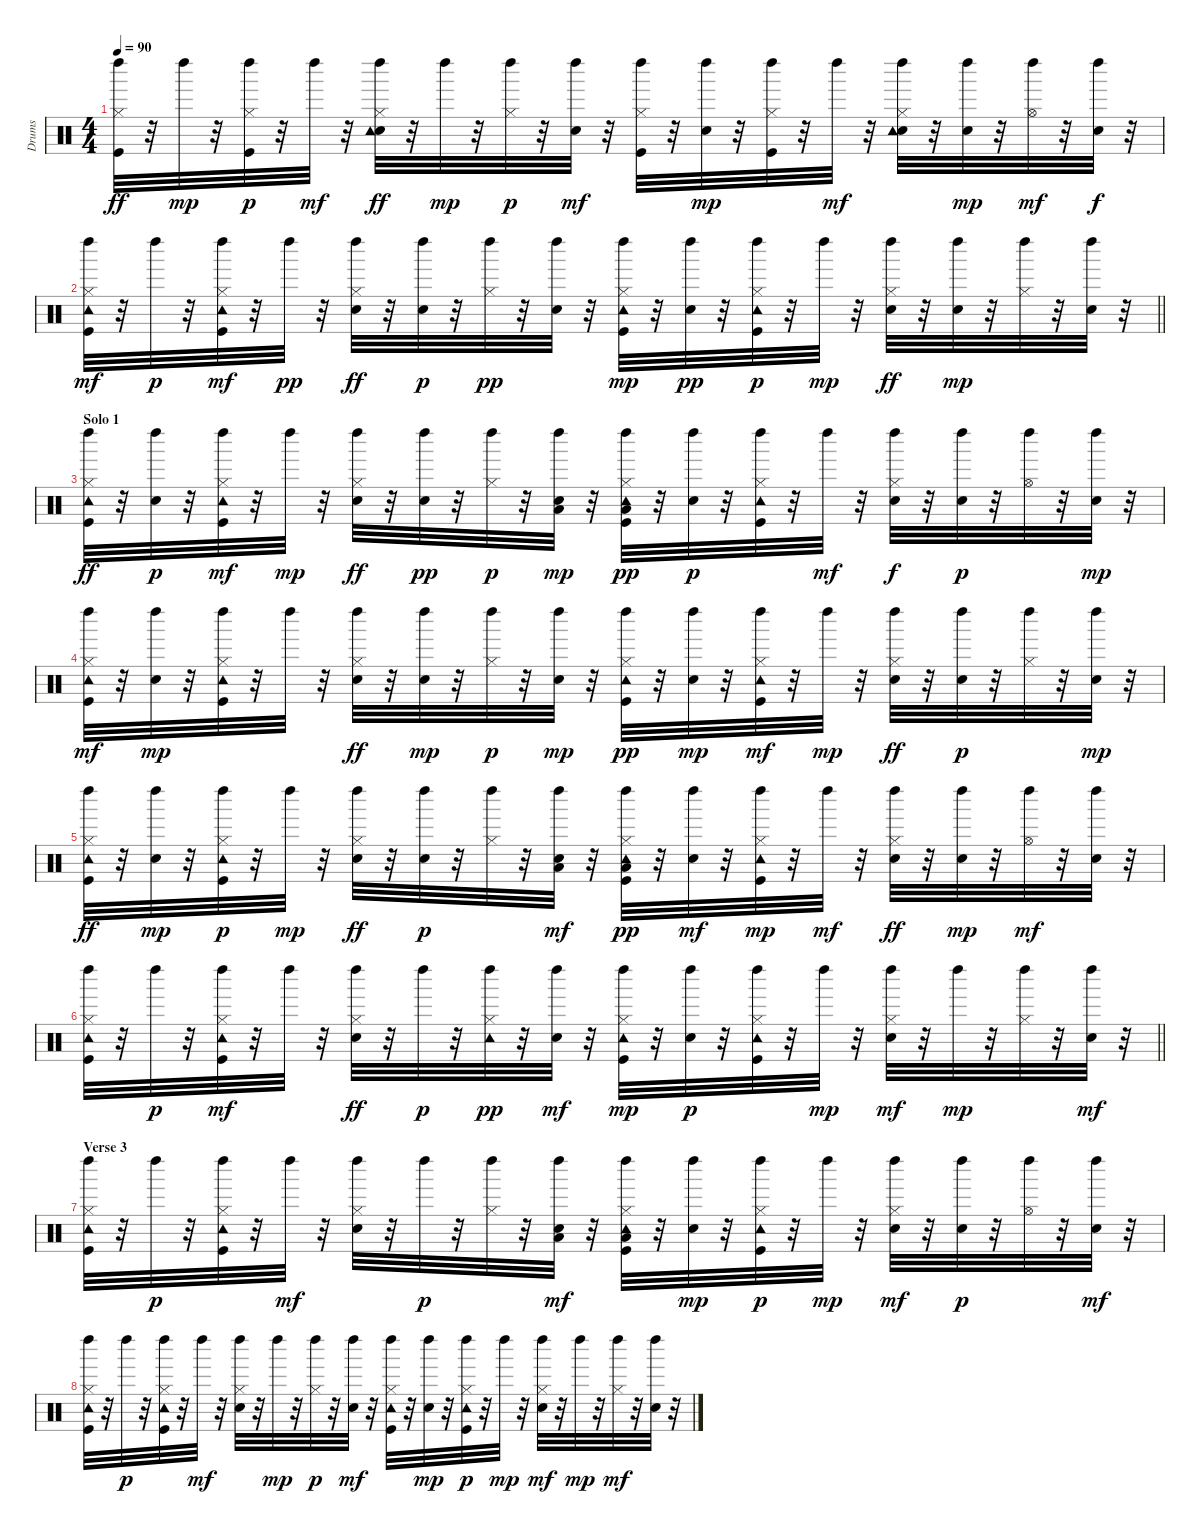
\track ("Drums" "Drums") {instrument percussion}
\staff {score}
\articulation defaults
\ts (4 4)
\tempo 90
\clef neutral
\ks c
("Kick (hit)" "Left Maraca (hit)" "Hi-Hat (closed)").32{dy ff} r.32 "Left Maraca (hit)".32{dy mp} r.32 ("Kick (hit)" "Hi-Hat (closed)" "Left Maraca (hit)").32{dy p} r.32 "Left Maraca (hit)".32{dy mf} r.32 ("Left Maraca (hit)" "Hi-Hat (closed)" "Electric Snare (hit)" "Tambourine (hit)").32{dy ff} r.32 "Left Maraca (hit)".32{dy mp} r.32 ("Hi-Hat (closed)" "Left Maraca (hit)").32{dy p} r.32 ("Electric Snare (hit)" "Left Maraca (hit)").32{dy mf} r.32 ("Kick (hit)" "Left Maraca (hit)" "Hi-Hat (closed)").32 r.32 ("Electric Snare (hit)" "Left Maraca (hit)").32{dy mp} r.32 ("Hi-Hat (closed)" "Kick (hit)" "Left Maraca (hit)").32 r.32 "Left Maraca (hit)".32{dy mf} r.32 ("Hi-Hat (closed)" "Electric Snare (hit)" "Tambourine (hit)" "Left Maraca (hit)").32 r.32 ("Electric Snare (hit)" "Left Maraca (hit)").32{dy mp} r.32 ("Hi-Hat (open)" "Left Maraca (hit)").32{dy mf} r.32 ("Electric Snare (hit)" "Left Maraca (hit)").32{dy f} r.32 |
\barLineRight lightlight
("Kick (hit)" "Tambourine (hit)" "Left Maraca (hit)" "Hi-Hat (closed)").32{dy mf} r.32 "Left Maraca (hit)".32{dy p} r.32 ("Tambourine (hit)" "Left Maraca (hit)" "Hi-Hat (closed)" "Kick (hit)").32{dy mf} r.32 "Left Maraca (hit)".32{dy pp} r.32 ("Electric Snare (hit)" "Left Maraca (hit)" "Hi-Hat (closed)").32{dy ff} r.32 ("Left Maraca (hit)" "Electric Snare (hit)").32{dy p} r.32 ("Hi-Hat (closed)" "Left Maraca (hit)").32{dy pp} r.32 ("Electric Snare (hit)" "Left Maraca (hit)").32 r.32 ("Tambourine (hit)" "Hi-Hat (closed)" "Kick (hit)" "Left Maraca (hit)").32{dy mp} r.32 ("Electric Snare (hit)" "Left Maraca (hit)").32{dy pp} r.32 ("Hi-Hat (closed)" "Kick (hit)" "Tambourine (hit)" "Left Maraca (hit)").32{dy p} r.32 "Left Maraca (hit)".32{dy mp} r.32 ("Left Maraca (hit)" "Hi-Hat (closed)" "Electric Snare (hit)").32{dy ff} r.32 ("Left Maraca (hit)" "Electric Snare (hit)").32{dy mp} r.32 ("Hi-Hat (closed)" "Left Maraca (hit)").32 r.32 ("Electric Snare (hit)" "Left Maraca (hit)").32 r.32 |
\section ("" "Solo 1")
("Tambourine (hit)" "Left Maraca (hit)" "Hi-Hat (closed)" "Kick (hit)").32{dy ff} r.32 ("Electric Snare (hit)" "Left Maraca (hit)").32{dy p} r.32 ("Tambourine (hit)" "Left Maraca (hit)" "Hi-Hat (closed)" "Kick (hit)").32{dy mf} r.32 "Left Maraca (hit)".32{dy mp} r.32 ("Electric Snare (hit)" "Hi-Hat (closed)" "Left Maraca (hit)").32{dy ff} r.32 ("Left Maraca (hit)" "Electric Snare (hit)").32{dy pp} r.32 ("Hi-Hat (closed)" "Left Maraca (hit)").32{dy p} r.32 ("Electric Snare (hit)" "Low Tom (hit)" "Left Maraca (hit)").32{dy mp} r.32 ("Tambourine (hit)" "Low Floor Tom (hit)" "Hi-Hat (closed)" "Kick (hit)" "Left Maraca (hit)").32{dy pp} r.32 ("Electric Snare (hit)" "Left Maraca (hit)").32{dy p} r.32 ("Kick (hit)" "Hi-Hat (closed)" "Tambourine (hit)" "Left Maraca (hit)").32 r.32 "Left Maraca (hit)".32{dy mf} r.32 ("Electric Snare (hit)" "Hi-Hat (closed)" "Left Maraca (hit)").32{dy f} r.32 ("Electric Snare (hit)" "Left Maraca (hit)").32{dy p} r.32 ("Hi-Hat (open)" "Left Maraca (hit)").32 r.32 ("Electric Snare (hit)" "Left Maraca (hit)").32{dy mp} r.32 |
("Tambourine (hit)" "Hi-Hat (closed)" "Kick (hit)" "Left Maraca (hit)").32{dy mf} r.32 ("Electric Snare (hit)" "Left Maraca (hit)").32{dy mp} r.32 ("Tambourine (hit)" "Hi-Hat (closed)" "Kick (hit)" "Left Maraca (hit)").32 r.32 "Left Maraca (hit)".32 r.32 ("Hi-Hat (closed)" "Electric Snare (hit)" "Left Maraca (hit)").32{dy ff} r.32 ("Left Maraca (hit)" "Electric Snare (hit)").32{dy mp} r.32 ("Hi-Hat (closed)" "Left Maraca (hit)").32{dy p} r.32 ("Electric Snare (hit)" "Left Maraca (hit)").32{dy mp} r.32 ("Tambourine (hit)" "Left Maraca (hit)" "Hi-Hat (closed)" "Kick (hit)").32{dy pp} r.32 ("Left Maraca (hit)" "Electric Snare (hit)").32{dy mp} r.32 ("Tambourine (hit)" "Left Maraca (hit)" "Hi-Hat (closed)" "Kick (hit)").32{dy mf} r.32 "Left Maraca (hit)".32{dy mp} r.32 ("Hi-Hat (closed)" "Electric Snare (hit)" "Left Maraca (hit)").32{dy ff} r.32 ("Electric Snare (hit)" "Left Maraca (hit)").32{dy p} r.32 ("Hi-Hat (closed)" "Left Maraca (hit)").32 r.32 ("Electric Snare (hit)" "Left Maraca (hit)").32{dy mp} r.32 |
("Tambourine (hit)" "Left Maraca (hit)" "Hi-Hat (closed)" "Kick (hit)").32{dy ff} r.32 ("Electric Snare (hit)" "Left Maraca (hit)").32{dy mp} r.32 ("Tambourine (hit)" "Hi-Hat (closed)" "Kick (hit)" "Left Maraca (hit)").32{dy p} r.32 "Left Maraca (hit)".32{dy mp} r.32 ("Hi-Hat (closed)" "Electric Snare (hit)" "Left Maraca (hit)").32{dy ff} r.32 ("Electric Snare (hit)" "Left Maraca (hit)").32{dy p} r.32 ("Hi-Hat (closed)" "Left Maraca (hit)").32 r.32 ("Electric Snare (hit)" "Low Tom (hit)" "Left Maraca (hit)").32{dy mf} r.32 ("Low Floor Tom (hit)" "Hi-Hat (closed)" "Kick (hit)" "Tambourine (hit)" "Left Maraca (hit)").32{dy pp} r.32 ("Left Maraca (hit)" "Electric Snare (hit)").32{dy mf} r.32 ("Tambourine (hit)" "Hi-Hat (closed)" "Kick (hit)" "Left Maraca (hit)").32{dy mp} r.32 "Left Maraca (hit)".32{dy mf} r.32 ("Electric Snare (hit)" "Hi-Hat (closed)" "Left Maraca (hit)").32{dy ff} r.32 ("Electric Snare (hit)" "Left Maraca (hit)").32{dy mp} r.32 ("Hi-Hat (open)" "Left Maraca (hit)").32{dy mf} r.32 ("Electric Snare (hit)" "Left Maraca (hit)").32 r.32 |
\barLineRight lightlight
("Kick (hit)" "Tambourine (hit)" "Left Maraca (hit)" "Hi-Hat (closed)").32 r.32 "Left Maraca (hit)".32{dy p} r.32 ("Kick (hit)" "Tambourine (hit)" "Left Maraca (hit)" "Hi-Hat (closed)").32{dy mf} r.32 "Left Maraca (hit)".32 r.32 ("Left Maraca (hit)" "Hi-Hat (closed)" "Electric Snare (hit)").32{dy ff} r.32 "Left Maraca (hit)".32{dy p} r.32 ("Tambourine (hit)" "Hi-Hat (closed)" "Left Maraca (hit)").32{dy pp} r.32 ("Left Maraca (hit)" "Electric Snare (hit)").32{dy mf} r.32 ("Hi-Hat (closed)" "Tambourine (hit)" "Kick (hit)" "Left Maraca (hit)").32{dy mp} r.32 ("Electric Snare (hit)" "Left Maraca (hit)").32{dy p} r.32 ("Hi-Hat (closed)" "Kick (hit)" "Tambourine (hit)" "Left Maraca (hit)").32 r.32 "Left Maraca (hit)".32{dy mp} r.32 ("Electric Snare (hit)" "Hi-Hat (closed)" "Left Maraca (hit)").32{dy mf} r.32 "Left Maraca (hit)".32{dy mp} r.32 ("Left Maraca (hit)" "Hi-Hat (closed)").32 r.32 ("Electric Snare (hit)" "Left Maraca (hit)").32{dy mf} r.32 |
\section ("" "Verse 3")
("Kick (hit)" "Hi-Hat (closed)" "Tambourine (hit)" "Left Maraca (hit)").32 r.32 "Left Maraca (hit)".32{dy p} r.32 ("Kick (hit)" "Hi-Hat (closed)" "Tambourine (hit)" "Left Maraca (hit)").32 r.32 "Left Maraca (hit)".32{dy mf} r.32 ("Electric Snare (hit)" "Hi-Hat (closed)" "Left Maraca (hit)").32 r.32 "Left Maraca (hit)".32{dy p} r.32 ("Hi-Hat (closed)" "Left Maraca (hit)").32 r.32 ("Left Maraca (hit)" "Electric Snare (hit)" "Low Tom (hit)").32{dy mf} r.32 ("Kick (hit)" "Tambourine (hit)" "Left Maraca (hit)" "Hi-Hat (closed)" "Low Floor Tom (hit)").32 r.32 ("Electric Snare (hit)" "Left Maraca (hit)").32{dy mp} r.32 ("Kick (hit)" "Hi-Hat (closed)" "Tambourine (hit)" "Left Maraca (hit)").32{dy p} r.32 "Left Maraca (hit)".32{dy mp} r.32 ("Electric Snare (hit)" "Hi-Hat (closed)" "Left Maraca (hit)").32{dy mf} r.32 ("Left Maraca (hit)" "Electric Snare (hit)").32{dy p} r.32 ("Hi-Hat (open)" "Left Maraca (hit)").32 r.32 ("Electric Snare (hit)" "Left Maraca (hit)").32{dy mf} r.32 |
("Hi-Hat (closed)" "Kick (hit)" "Tambourine (hit)" "Left Maraca (hit)").32 r.32 "Left Maraca (hit)".32{dy p} r.32 ("Hi-Hat (closed)" "Tambourine (hit)" "Kick (hit)" "Left Maraca (hit)").32 r.32 "Left Maraca (hit)".32{dy mf} r.32 ("Electric Snare (hit)" "Left Maraca (hit)" "Hi-Hat (closed)").32 r.32 "Left Maraca (hit)".32{dy mp} r.32 ("Hi-Hat (closed)" "Left Maraca (hit)").32{dy p} r.32 ("Electric Snare (hit)" "Left Maraca (hit)").32{dy mf} r.32 ("Kick (hit)" "Tambourine (hit)" "Left Maraca (hit)" "Hi-Hat (closed)").32 r.32 ("Electric Snare (hit)" "Left Maraca (hit)").32{dy mp} r.32 ("Kick (hit)" "Left Maraca (hit)" "Hi-Hat (closed)" "Tambourine (hit)").32{dy p} r.32 "Left Maraca (hit)".32{dy mp} r.32 ("Electric Snare (hit)" "Left Maraca (hit)" "Hi-Hat (closed)").32{dy mf} r.32 "Left Maraca (hit)".32{dy mp} r.32 ("Left Maraca (hit)" "Hi-Hat (closed)").32{dy mf} r.32 ("Electric Snare (hit)" "Left Maraca (hit)").32 r.32
